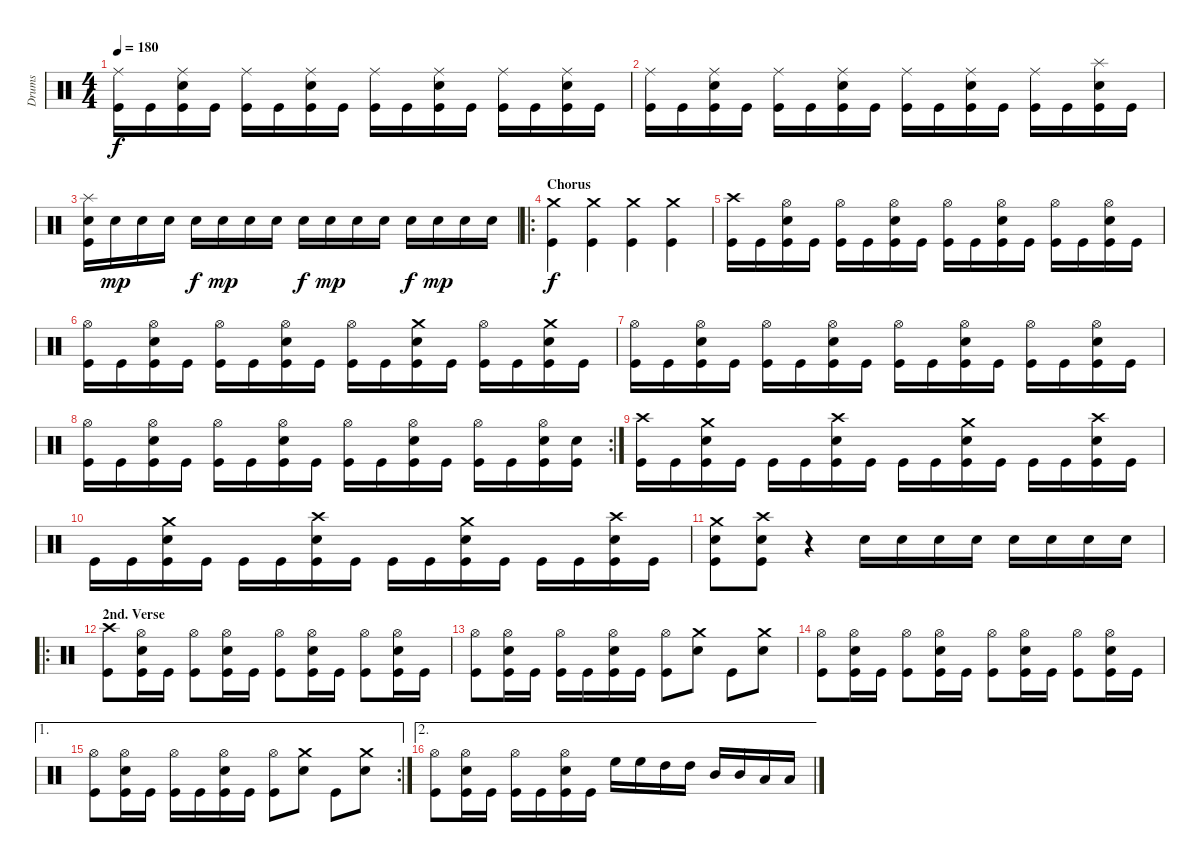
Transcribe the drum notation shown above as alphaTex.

\track ("Drums" "Drums") {instrument percussion}
\staff {score}
\articulation defaults
\ts (4 4)
\tempo 180
\clef neutral
\ks c
("Ride (middle)" "Kick (hit)").16{dy f} "Kick (hit)".16 ("Ride (middle)" "Electric Snare (hit)" "Kick (hit)").16 "Kick (hit)".16 ("Ride (middle)" "Kick (hit)").16 "Kick (hit)".16 ("Ride (middle)" "Electric Snare (hit)" "Kick (hit)").16 "Kick (hit)".16 ("Ride (middle)" "Kick (hit)").16 "Kick (hit)".16 ("Ride (middle)" "Electric Snare (hit)" "Kick (hit)").16 "Kick (hit)".16 ("Ride (middle)" "Kick (hit)").16 "Kick (hit)".16 ("Ride (middle)" "Electric Snare (hit)" "Kick (hit)").16 "Kick (hit)".16 |
("Ride (middle)" "Kick (hit)").16 "Kick (hit)".16 ("Ride (middle)" "Electric Snare (hit)" "Kick (hit)").16 "Kick (hit)".16 ("Ride (middle)" "Kick (hit)").16 "Kick (hit)".16 ("Ride (middle)" "Electric Snare (hit)" "Kick (hit)").16 "Kick (hit)".16 ("Ride (middle)" "Kick (hit)").16 "Kick (hit)".16 ("Ride (middle)" "Electric Snare (hit)" "Kick (hit)").16 "Kick (hit)".16 ("Ride (middle)" "Kick (hit)").16 "Kick (hit)".16 ("Splash (hit)" "Electric Snare (hit)" "Kick (hit)").16 "Kick (hit)".16 |
("Splash (hit)" "Electric Snare (hit)" "Kick (hit)").16 "Electric Snare (hit)".16{dy mp} "Electric Snare (hit)".16 "Electric Snare (hit)".16 "Electric Snare (hit)".16{dy f} "Electric Snare (hit)".16{dy mp} "Electric Snare (hit)".16 "Electric Snare (hit)".16 "Electric Snare (hit)".16{dy f} "Electric Snare (hit)".16{dy mp} "Electric Snare (hit)".16 "Electric Snare (hit)".16 "Electric Snare (hit)".16{dy f} "Electric Snare (hit)".16{dy mp} "Electric Snare (hit)".16 "Electric Snare (hit)".16 |
\ro
\section ("" "Chorus")
("Crash medium (hit)" "Kick (hit)").4{dy f} ("Crash medium (hit)" "Kick (hit)").4 ("Crash medium (hit)" "Kick (hit)").4 ("Crash medium (hit)" "Kick (hit)").4 |
("Crash high (hit)" "Kick (hit)").16 "Kick (hit)".16 ("Hi-Hat (open)" "Electric Snare (hit)" "Kick (hit)").16 "Kick (hit)".16 ("Hi-Hat (open)" "Kick (hit)").16 "Kick (hit)".16 ("Hi-Hat (open)" "Electric Snare (hit)" "Kick (hit)").16 "Kick (hit)".16 ("Hi-Hat (open)" "Kick (hit)").16 "Kick (hit)".16 ("Hi-Hat (open)" "Electric Snare (hit)" "Kick (hit)").16 "Kick (hit)".16 ("Hi-Hat (open)" "Kick (hit)").16 "Kick (hit)".16 ("Hi-Hat (open)" "Electric Snare (hit)" "Kick (hit)").16 "Kick (hit)".16 |
("Hi-Hat (open)" "Kick (hit)").16 "Kick (hit)".16 ("Hi-Hat (open)" "Electric Snare (hit)" "Kick (hit)").16 "Kick (hit)".16 ("Hi-Hat (open)" "Kick (hit)").16 "Kick (hit)".16 ("Hi-Hat (open)" "Electric Snare (hit)" "Kick (hit)").16 "Kick (hit)".16 ("Hi-Hat (open)" "Kick (hit)").16 "Kick (hit)".16 ("Crash medium (hit)" "Electric Snare (hit)" "Kick (hit)").16 "Kick (hit)".16 ("Hi-Hat (open)" "Kick (hit)").16 "Kick (hit)".16 ("Crash medium (hit)" "Electric Snare (hit)" "Kick (hit)").16 "Kick (hit)".16 |
("Hi-Hat (open)" "Kick (hit)").16 "Kick (hit)".16 ("Hi-Hat (open)" "Electric Snare (hit)" "Kick (hit)").16 "Kick (hit)".16 ("Hi-Hat (open)" "Kick (hit)").16 "Kick (hit)".16 ("Hi-Hat (open)" "Electric Snare (hit)" "Kick (hit)").16 "Kick (hit)".16 ("Hi-Hat (open)" "Kick (hit)").16 "Kick (hit)".16 ("Hi-Hat (open)" "Electric Snare (hit)" "Kick (hit)").16 "Kick (hit)".16 ("Hi-Hat (open)" "Kick (hit)").16 "Kick (hit)".16 ("Hi-Hat (open)" "Electric Snare (hit)" "Kick (hit)").16 "Kick (hit)".16 |
\rc 2
("Hi-Hat (open)" "Kick (hit)").16 "Kick (hit)".16 ("Hi-Hat (open)" "Electric Snare (hit)" "Kick (hit)").16 "Kick (hit)".16 ("Hi-Hat (open)" "Kick (hit)").16 "Kick (hit)".16 ("Hi-Hat (open)" "Electric Snare (hit)" "Kick (hit)").16 "Kick (hit)".16 ("Hi-Hat (open)" "Kick (hit)").16 "Kick (hit)".16 ("Hi-Hat (open)" "Electric Snare (hit)" "Kick (hit)").16 "Kick (hit)".16 ("Hi-Hat (open)" "Kick (hit)").16 "Kick (hit)".16 ("Hi-Hat (open)" "Electric Snare (hit)" "Kick (hit)").16 ("Electric Snare (hit)" "Kick (hit)").16 |
("Crash high (hit)" "Kick (hit)").16 "Kick (hit)".16 ("Crash medium (hit)" "Electric Snare (hit)" "Kick (hit)").16 "Kick (hit)".16 "Kick (hit)".16 "Kick (hit)".16 ("Crash high (hit)" "Electric Snare (hit)" "Kick (hit)").16 "Kick (hit)".16 "Kick (hit)".16 "Kick (hit)".16 ("Crash medium (hit)" "Electric Snare (hit)" "Kick (hit)").16 "Kick (hit)".16 "Kick (hit)".16 "Kick (hit)".16 ("Crash high (hit)" "Electric Snare (hit)" "Kick (hit)").16 "Kick (hit)".16 |
"Kick (hit)".16 "Kick (hit)".16 ("Crash medium (hit)" "Electric Snare (hit)" "Kick (hit)").16 "Kick (hit)".16 "Kick (hit)".16 "Kick (hit)".16 ("Crash high (hit)" "Electric Snare (hit)" "Kick (hit)").16 "Kick (hit)".16 "Kick (hit)".16 "Kick (hit)".16 ("Crash medium (hit)" "Electric Snare (hit)" "Kick (hit)").16 "Kick (hit)".16 "Kick (hit)".16 "Kick (hit)".16 ("Crash high (hit)" "Electric Snare (hit)" "Kick (hit)").16 "Kick (hit)".16 |
("Crash medium (hit)" "Electric Snare (hit)" "Kick (hit)").8 ("Crash high (hit)" "Electric Snare (hit)" "Kick (hit)").8 r.4 "Electric Snare (hit)".16 "Electric Snare (hit)".16 "Electric Snare (hit)".16 "Electric Snare (hit)".16 "Electric Snare (hit)".16 "Electric Snare (hit)".16 "Electric Snare (hit)".16 "Electric Snare (hit)".16 |
\ro
\section ("" "2nd. Verse")
("Crash high (hit)" "Kick (hit)").8 ("Hi-Hat (open)" "Electric Snare (hit)" "Kick (hit)").16 "Kick (hit)".16 ("Hi-Hat (open)" "Kick (hit)").8 ("Hi-Hat (open)" "Electric Snare (hit)" "Kick (hit)").16 "Kick (hit)".16 ("Hi-Hat (open)" "Kick (hit)").8 ("Hi-Hat (open)" "Electric Snare (hit)" "Kick (hit)").16 "Kick (hit)".16 ("Hi-Hat (open)" "Kick (hit)").8 ("Hi-Hat (open)" "Electric Snare (hit)" "Kick (hit)").16 "Kick (hit)".16 |
("Hi-Hat (open)" "Kick (hit)").8 ("Hi-Hat (open)" "Electric Snare (hit)" "Kick (hit)").16 "Kick (hit)".16 ("Hi-Hat (open)" "Kick (hit)").16 "Kick (hit)".16 ("Hi-Hat (open)" "Electric Snare (hit)" "Kick (hit)").16 "Kick (hit)".16 ("Hi-Hat (open)" "Kick (hit)").8 ("Crash medium (hit)" "Electric Snare (hit)").8 "Kick (hit)".8 ("Crash medium (hit)" "Electric Snare (hit)").8 |
("Hi-Hat (open)" "Kick (hit)").8 ("Hi-Hat (open)" "Electric Snare (hit)" "Kick (hit)").16 "Kick (hit)".16 ("Hi-Hat (open)" "Kick (hit)").8 ("Hi-Hat (open)" "Electric Snare (hit)" "Kick (hit)").16 "Kick (hit)".16 ("Hi-Hat (open)" "Kick (hit)").8 ("Hi-Hat (open)" "Electric Snare (hit)" "Kick (hit)").16 "Kick (hit)".16 ("Hi-Hat (open)" "Kick (hit)").8 ("Hi-Hat (open)" "Electric Snare (hit)" "Kick (hit)").16 "Kick (hit)".16 |
\ae 1
\rc 2
("Hi-Hat (open)" "Kick (hit)").8 ("Hi-Hat (open)" "Electric Snare (hit)" "Kick (hit)").16 "Kick (hit)".16 ("Hi-Hat (open)" "Kick (hit)").16 "Kick (hit)".16 ("Hi-Hat (open)" "Electric Snare (hit)" "Kick (hit)").16 "Kick (hit)".16 ("Hi-Hat (open)" "Kick (hit)").8 ("Crash medium (hit)" "Electric Snare (hit)").8 "Kick (hit)".8 ("Crash medium (hit)" "Electric Snare (hit)").8 |
\ae 2
("Hi-Hat (open)" "Kick (hit)").8 ("Hi-Hat (open)" "Electric Snare (hit)" "Kick (hit)").16 "Kick (hit)".16 ("Hi-Hat (open)" "Kick (hit)").16 "Kick (hit)".16 ("Hi-Hat (open)" "Electric Snare (hit)" "Kick (hit)").16 "Kick (hit)".16 "High Floor Tom (hit)".16 "High Floor Tom (hit)".16 "High Tom (hit)".16 "High Tom (hit)".16 "Mid Tom (hit)".16 "Mid Tom (hit)".16 "Low Tom (hit)".16 "Low Tom (hit)".16
